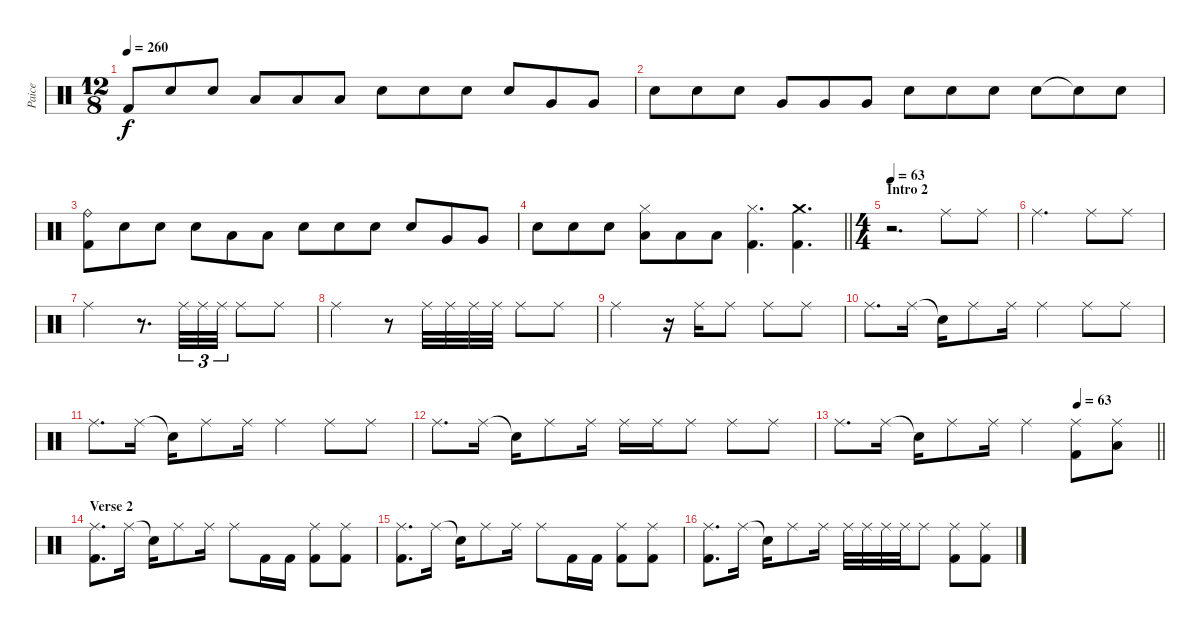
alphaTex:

\track ("Paice" "Paice") {instrument percussion}
\staff {score}
\articulation defaults
\ts (12 8)
\tempo 260
\clef neutral
\ks c "Kick (hit) 2".8{dy f} "Electric Snare (hit)".8 "Electric Snare (hit)".8 "Low Tom (hit)".8 "Low Tom (hit)".8 "Low Tom (hit)".8 "Electric Snare (hit)".8 "Electric Snare (hit)".8 "Electric Snare (hit)".8 "Electric Snare (hit)".8 "Very Low Tom (hit)".8 "Very Low Tom (hit)".8
|
"Electric Snare (hit)".8 "Electric Snare (hit)".8 "Electric Snare (hit)".8 "Very Low Tom (hit)".8 "Very Low Tom (hit)".8 "Very Low Tom (hit)".8 "Electric Snare (hit)".8 "Electric Snare (hit)".8 "Electric Snare (hit)".8 "Electric Snare (hit)".8 "Snare (hit)"{t}.8 "Electric Snare (hit)".8 |
("Ride (bell)" "Kick (hit) 2").8 "Electric Snare (hit)".8 "Electric Snare (hit)".8 "Electric Snare (hit)".8 "Low Tom (hit)".8 "Low Tom (hit)".8 "Electric Snare (hit)".8 "Electric Snare (hit)".8 "Electric Snare (hit)".8 "Electric Snare (hit)".8 "Very Low Tom (hit)".8 "Very Low Tom (hit)".8 |
\barLineRight lightlight "Electric Snare (hit)".8 "Electric Snare (hit)".8 "Electric Snare (hit)".8
("Hi-Hat (closed)" "Low Tom (hit)").8 "Low Tom (hit)".8 "Low Tom (hit)".8 ("Hi-Hat (closed)" "Kick (hit) 2").4{d} ("Crash medium (hit)" "Kick (hit) 2").4{d} |
\ts (4 4)
\section ("" "Intro 2")
\tempo 63
r.2{d} "Ride (middle)".8 "Ride (middle)".8 |
"Ride (middle)".2{d} "Ride (middle)".8 "Ride (middle)".8 |
"Ride (middle)".2 r.8{d} "Ride (middle)".32{tu (3 2)} "Ride (middle)".32{tu (3 2)} "Ride (middle)".32{tu (3 2)} "Ride (middle)".8 "Ride (middle)".8 |
"Ride (middle)".2 r.8 "Ride (middle)".32 "Ride (middle)".32 "Ride (middle)".32 "Ride (middle)".32 "Ride (middle)".8 "Ride (middle)".8 |
"Ride (middle)".2 r.16 "Ride (middle)".16 "Ride (middle)".8 "Ride (middle)".8 "Ride (middle)".8 |
"Ride (middle)".8{d} "Ride (middle)".16 "Snare (hit)"{t}.16 "Ride (middle)".8 "Ride (middle)".16 "Ride (middle)".4 "Ride (middle)".8 "Ride (middle)".8 |
"Ride (middle)".8{d} "Ride (middle)".16 "Snare (hit)"{t}.16 "Ride (middle)".8 "Ride (middle)".16 "Ride (middle)".4 "Ride (middle)".8 "Ride (middle)".8 |
"Ride (middle)".8{d} "Ride (middle)".16 "Snare (hit)"{t}.16 "Ride (middle)".8 "Ride (middle)".16 "Ride (middle)".16 "Ride (middle)".16 "Ride (middle)".8 "Ride (middle)".8 "Ride (middle)".8 |
\tempo (63 0.75)
\barLineRight lightlight "Ride (middle)".8{d} "Ride (middle)".16 "Snare (hit)"{t}.16 "Ride (middle)".8 "Ride (middle)".16 "Ride (middle)".4
("Ride (middle)" "Kick (hit) 2").8 ("Ride (middle)" "Low Floor Tom (hit)").8 |
\section ("" "Verse 2")
("Ride (middle)" "Kick (hit) 2").8{d} "Ride (middle)".16 "Snare (hit)"{t}.16 "Ride (middle)".8 "Ride (middle)".16 "Ride (middle)".8 "Kick (hit) 2"{x}.16 "Kick (hit) 2".16 ("Ride (middle)" "Kick (hit) 2").8 ("Ride (middle)" "Kick (hit) 2").8 |
("Ride (middle)" "Kick (hit) 2").8{d} "Ride (middle)".16 "Snare (hit)"{t}.16 "Ride (middle)".8 "Ride (middle)".16 "Ride (middle)".8 "Kick (hit) 2"{x}.16 "Kick (hit) 2".16 ("Ride (middle)" "Kick (hit) 2").8 ("Ride (middle)" "Kick (hit) 2").8 |
("Ride (middle)" "Kick (hit) 2").8{d} "Ride (middle)".16 "Snare (hit)"{t}.16 "Ride (middle)".8 "Ride (middle)".16 "Ride (middle)".32 "Ride (middle)".32 "Ride (middle)".32 "Ride (middle)".32 "Ride (middle)".8 ("Ride (middle)" "Kick (hit) 2").8 ("Ride (middle)" "Kick (hit) 2").8
